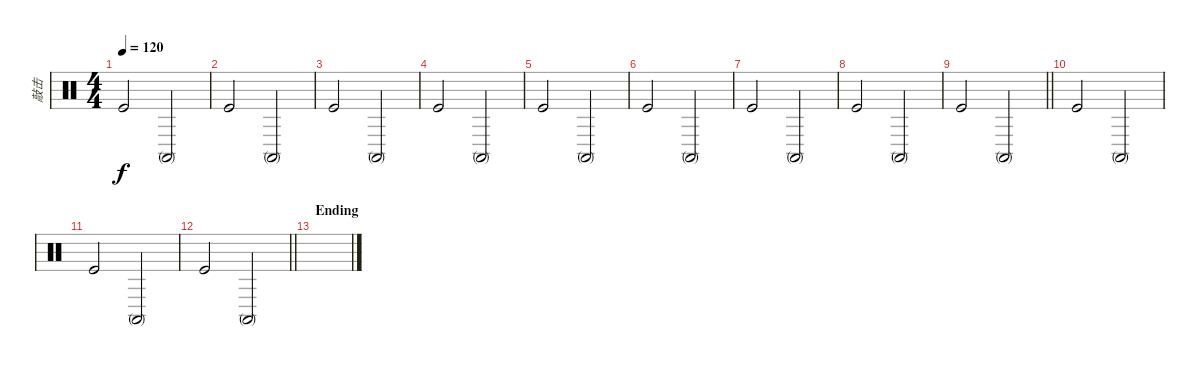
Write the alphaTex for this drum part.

\track ("敲击" "敲击") {instrument percussion}
\staff {score}
\articulation defaults
\ts (4 4)
\tempo 120
\clef neutral
\ks c "Kick (hit)".2{dy f} "Conga high (mute)".2
|
"Kick (hit)".2 "Conga high (mute)".2 |
"Kick (hit)".2 "Conga high (mute)".2 |
"Kick (hit)".2 "Conga high (mute)".2 |
"Kick (hit)".2 "Conga high (mute)".2 |
"Kick (hit)".2 "Conga high (mute)".2 |
"Kick (hit)".2 "Conga high (mute)".2 |
"Kick (hit)".2 "Conga high (mute)".2 |
\barLineRight lightlight "Kick (hit)".2 "Conga high (mute)".2
|
\section ("" "")
"Kick (hit)".2 "Conga high (mute)".2 |
"Kick (hit)".2 "Conga high (mute)".2 |
\barLineRight lightlight "Kick (hit)".2 "Conga high (mute)".2
|
\section ("" "Ending")
